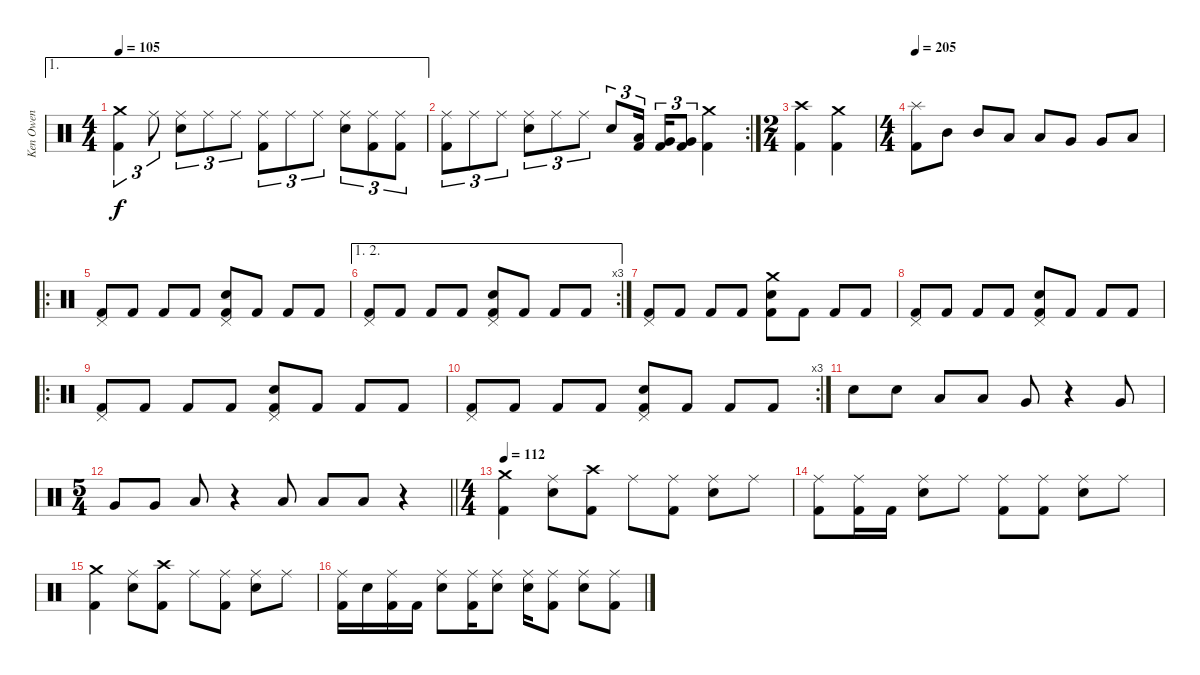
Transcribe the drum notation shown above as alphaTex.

\track ("Ken Owen" "Ken Owen") {instrument percussion}
\staff {score}
\articulation defaults
\ae 1
\ts (4 4)
\tempo 105
\clef neutral
\ks c
("Crash medium (hit)" "Kick (hit) 2").4{tu (3 2) dy f} "Ride (middle)".8{tu (3 2)} ("Ride (middle)" "Electric Snare (hit)").8{tu (3 2)} "Ride (middle)".8{tu (3 2)} "Ride (middle)".8{tu (3 2)} ("Ride (middle)" "Kick (hit) 2").8{tu (3 2)} "Ride (middle)".8{tu (3 2)} "Ride (middle)".8{tu (3 2)} ("Ride (middle)" "Electric Snare (hit)").8{tu (3 2)} ("Ride (middle)" "Kick (hit) 2").8{tu (3 2)} ("Ride (middle)" "Kick (hit) 2").8{tu (3 2)} |
\rc 2
("Ride (middle)" "Kick (hit) 2").8{tu (3 2)} "Ride (middle)".8{tu (3 2)} "Ride (middle)".8{tu (3 2)} ("Ride (middle)" "Electric Snare (hit)").8{tu (3 2)} "Ride (middle)".8{tu (3 2)} "Ride (middle)".8{tu (3 2)} "Electric Snare (hit)".8{tu (3 2)} ("Low Tom (hit)" "Kick (hit) 2").16{tu (3 2) beam splitsecondary} ("Very Low Tom (hit)" "Kick (hit) 2").16{tu (3 2)} ("Very Low Tom (hit)" "Kick (hit) 2").8{tu (3 2)} ("Crash medium (hit)" "Kick (hit) 2").4 |
\ts (2 4)
("Crash high (hit)" "Kick (hit) 2").4 ("Crash medium (hit)" "Kick (hit) 2").4 |
\ts (4 4)
\tempo 205
("Splash (hit)" "Kick (hit) 2").8 "Mid Tom (hit)".8 "Mid Tom (hit)".8 "Low Tom (hit)".8 "Low Tom (hit)".8 "Very Low Tom (hit)".8 "Very Low Tom (hit)".8 "Low Floor Tom (hit)".8 |
\ro
("Pedal Hi-Hat (hit)" "Kick (hit) 2").8 "Kick (hit) 2".8 "Kick (hit) 2".8 "Kick (hit) 2".8 ("Pedal Hi-Hat (hit)" "Electric Snare (hit)" "Kick (hit) 2").8 "Kick (hit) 2".8 "Kick (hit) 2".8 "Kick (hit) 2".8 |
\ae (1 2)
\rc 3
("Pedal Hi-Hat (hit)" "Kick (hit) 2").8 "Kick (hit) 2".8 "Kick (hit) 2".8 "Kick (hit) 2".8 ("Pedal Hi-Hat (hit)" "Electric Snare (hit)" "Kick (hit) 2").8 "Kick (hit) 2".8 "Kick (hit) 2".8 "Kick (hit) 2".8 |
("Pedal Hi-Hat (hit)" "Kick (hit) 2").8 "Kick (hit) 2".8 "Kick (hit) 2".8 "Kick (hit) 2".8 ("Crash medium (hit)" "Electric Snare (hit)" "Kick (hit) 2").8 "Kick (hit) 2".8 "Kick (hit) 2".8 "Kick (hit) 2".8 |
("Pedal Hi-Hat (hit)" "Kick (hit) 2").8 "Kick (hit) 2".8 "Kick (hit) 2".8 "Kick (hit) 2".8 ("Pedal Hi-Hat (hit)" "Electric Snare (hit)" "Kick (hit) 2").8 "Kick (hit) 2".8 "Kick (hit) 2".8 "Kick (hit) 2".8 |
\ro
("Pedal Hi-Hat (hit)" "Kick (hit) 2").8 "Kick (hit) 2".8 "Kick (hit) 2".8 "Kick (hit) 2".8 ("Pedal Hi-Hat (hit)" "Electric Snare (hit)" "Kick (hit) 2").8 "Kick (hit) 2".8 "Kick (hit) 2".8 "Kick (hit) 2".8 |
\rc 3
("Pedal Hi-Hat (hit)" "Kick (hit) 2").8 "Kick (hit) 2".8 "Kick (hit) 2".8 "Kick (hit) 2".8 ("Pedal Hi-Hat (hit)" "Electric Snare (hit)" "Kick (hit) 2").8 "Kick (hit) 2".8 "Kick (hit) 2".8 "Kick (hit) 2".8 |
"Electric Snare (hit)".8 "Electric Snare (hit)".8 "Low Tom (hit)".8 "Low Tom (hit)".8 "Very Low Tom (hit)".8 r.4 "Very Low Tom (hit)".8 |
\ts (5 4)
\barLineRight lightlight "Very Low Tom (hit)".8 "Very Low Tom (hit)".8 "Low Floor Tom (hit)".8
r.4 "Low Floor Tom (hit)".8 "Low Floor Tom (hit)".8 "Low Floor Tom (hit)".8 r.4 |
\ts (4 4)
\tempo 112
("Crash medium (hit)" "Kick (hit) 2").4 ("Ride (middle)" "Electric Snare (hit)").8 ("Crash high (hit)" "Kick (hit) 2").8 "Ride (middle)".8 ("Ride (middle)" "Kick (hit) 2").8 ("Ride (middle)" "Electric Snare (hit)").8 "Ride (middle)".8 |
("Ride (middle)" "Kick (hit) 2").8 ("Ride (middle)" "Kick (hit) 2").16 "Kick (hit) 2".16 ("Ride (middle)" "Electric Snare (hit)").8 "Ride (middle)".8 ("Ride (middle)" "Kick (hit) 2").8 ("Ride (middle)" "Kick (hit) 2").8 ("Ride (middle)" "Electric Snare (hit)").8 "Ride (middle)".8 |
("Crash medium (hit)" "Kick (hit) 2").4 ("Ride (middle)" "Electric Snare (hit)").8 ("Crash high (hit)" "Kick (hit) 2").8 "Ride (middle)".8 ("Ride (middle)" "Kick (hit) 2").8 ("Ride (middle)" "Electric Snare (hit)").8 "Ride (middle)".8 |
("Ride (middle)" "Kick (hit) 2").16 "Electric Snare (hit)".16 ("Ride (middle)" "Kick (hit) 2").16 "Kick (hit) 2".16 ("Ride (middle)" "Electric Snare (hit)").8 ("Ride (middle)" "Kick (hit) 2").16 ("Ride (middle)" "Electric Snare (hit)").8 ("Ride (middle)" "Electric Snare (hit)").16 ("Ride (middle)" "Kick (hit) 2").8 ("Ride (middle)" "Electric Snare (hit)").8 ("Ride (middle)" "Kick (hit) 2").8
